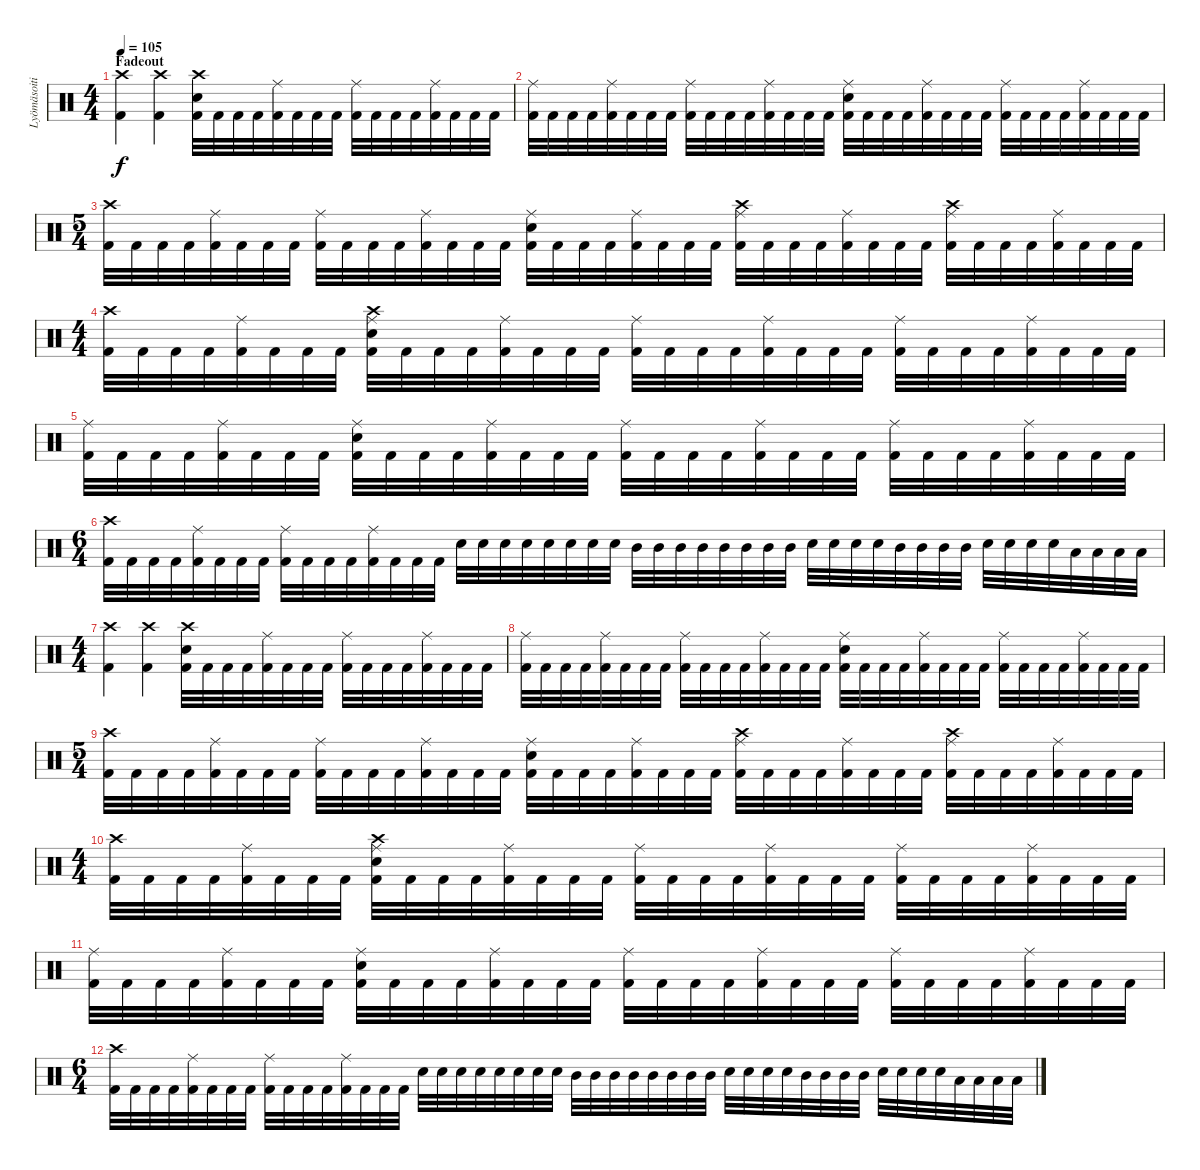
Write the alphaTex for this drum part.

\track ("Lyömäsoitin" "Lyömäsoiti") {instrument percussion}
\staff {score}
\articulation defaults
\ts (4 4)
\section ("" "Fadeout")
\tempo 105
\clef neutral
\ks c
("Kick (hit) 2" "Crash high (hit)").4{dy f} ("Kick (hit) 2" "Crash high (hit)").4 ("Kick (hit) 2" "Electric Snare (hit)" "Crash high (hit)").32 "Kick (hit) 2".32 "Kick (hit) 2".32 "Kick (hit) 2".32 ("Kick (hit) 2" "Ride (middle)").32 "Kick (hit) 2".32 "Kick (hit) 2".32 "Kick (hit) 2".32 ("Kick (hit) 2" "Ride (middle)").32 "Kick (hit) 2".32 "Kick (hit) 2".32 "Kick (hit) 2".32 ("Kick (hit) 2" "Ride (middle)").32 "Kick (hit) 2".32 "Kick (hit) 2".32 "Kick (hit) 2".32 |
("Kick (hit) 2" "Ride (middle)").32 "Kick (hit) 2".32 "Kick (hit) 2".32 "Kick (hit) 2".32 ("Kick (hit) 2" "Ride (middle)").32 "Kick (hit) 2".32 "Kick (hit) 2".32 "Kick (hit) 2".32 ("Kick (hit) 2" "Ride (middle)").32 "Kick (hit) 2".32 "Kick (hit) 2".32 "Kick (hit) 2".32 ("Kick (hit) 2" "Ride (middle)").32 "Kick (hit) 2".32 "Kick (hit) 2".32 "Kick (hit) 2".32 ("Kick (hit) 2" "Ride (middle)" "Electric Snare (hit)").32 "Kick (hit) 2".32 "Kick (hit) 2".32 "Kick (hit) 2".32 ("Kick (hit) 2" "Ride (middle)").32 "Kick (hit) 2".32 "Kick (hit) 2".32 "Kick (hit) 2".32 ("Kick (hit) 2" "Ride (middle)").32 "Kick (hit) 2".32 "Kick (hit) 2".32 "Kick (hit) 2".32 ("Kick (hit) 2" "Ride (middle)").32 "Kick (hit) 2".32 "Kick (hit) 2".32 "Kick (hit) 2".32 |
\ts (5 4)
("Kick (hit) 2" "Crash high (hit)").32 "Kick (hit) 2".32 "Kick (hit) 2".32 "Kick (hit) 2".32 ("Kick (hit) 2" "Ride (middle)").32 "Kick (hit) 2".32 "Kick (hit) 2".32 "Kick (hit) 2".32 ("Kick (hit) 2" "Ride (middle)").32 "Kick (hit) 2".32 "Kick (hit) 2".32 "Kick (hit) 2".32 ("Kick (hit) 2" "Ride (middle)").32 "Kick (hit) 2".32 "Kick (hit) 2".32 "Kick (hit) 2".32 ("Kick (hit) 2" "Ride (middle)" "Electric Snare (hit)").32 "Kick (hit) 2".32 "Kick (hit) 2".32 "Kick (hit) 2".32 ("Kick (hit) 2" "Ride (middle)").32 "Kick (hit) 2".32 "Kick (hit) 2".32 "Kick (hit) 2".32 ("Kick (hit) 2" "Ride (middle)" "Crash high (hit)").32 "Kick (hit) 2".32 "Kick (hit) 2".32 "Kick (hit) 2".32 ("Kick (hit) 2" "Ride (middle)").32 "Kick (hit) 2".32 "Kick (hit) 2".32 "Kick (hit) 2".32 ("Kick (hit) 2" "Ride (middle)" "Crash high (hit)").32 "Kick (hit) 2".32 "Kick (hit) 2".32 "Kick (hit) 2".32 ("Kick (hit) 2" "Ride (middle)").32 "Kick (hit) 2".32 "Kick (hit) 2".32 "Kick (hit) 2".32 |
\ts (4 4)
("Kick (hit) 2" "Crash high (hit)").32 "Kick (hit) 2".32 "Kick (hit) 2".32 "Kick (hit) 2".32 ("Kick (hit) 2" "Ride (middle)").32 "Kick (hit) 2".32 "Kick (hit) 2".32 "Kick (hit) 2".32 ("Kick (hit) 2" "Ride (middle)" "Electric Snare (hit)" "Crash high (hit)").32 "Kick (hit) 2".32 "Kick (hit) 2".32 "Kick (hit) 2".32 ("Kick (hit) 2" "Ride (middle)").32 "Kick (hit) 2".32 "Kick (hit) 2".32 "Kick (hit) 2".32 ("Kick (hit) 2" "Ride (middle)").32 "Kick (hit) 2".32 "Kick (hit) 2".32 "Kick (hit) 2".32 ("Kick (hit) 2" "Ride (middle)").32 "Kick (hit) 2".32 "Kick (hit) 2".32 "Kick (hit) 2".32 ("Kick (hit) 2" "Ride (middle)").32 "Kick (hit) 2".32 "Kick (hit) 2".32 "Kick (hit) 2".32 ("Kick (hit) 2" "Ride (middle)").32 "Kick (hit) 2".32 "Kick (hit) 2".32 "Kick (hit) 2".32 |
("Kick (hit) 2" "Ride (middle)").32 "Kick (hit) 2".32 "Kick (hit) 2".32 "Kick (hit) 2".32 ("Kick (hit) 2" "Ride (middle)").32 "Kick (hit) 2".32 "Kick (hit) 2".32 "Kick (hit) 2".32 ("Kick (hit) 2" "Ride (middle)" "Electric Snare (hit)").32 "Kick (hit) 2".32 "Kick (hit) 2".32 "Kick (hit) 2".32 ("Kick (hit) 2" "Ride (middle)").32 "Kick (hit) 2".32 "Kick (hit) 2".32 "Kick (hit) 2".32 ("Kick (hit) 2" "Ride (middle)").32 "Kick (hit) 2".32 "Kick (hit) 2".32 "Kick (hit) 2".32 ("Kick (hit) 2" "Ride (middle)").32 "Kick (hit) 2".32 "Kick (hit) 2".32 "Kick (hit) 2".32 ("Kick (hit) 2" "Ride (middle)").32 "Kick (hit) 2".32 "Kick (hit) 2".32 "Kick (hit) 2".32 ("Kick (hit) 2" "Ride (middle)").32 "Kick (hit) 2".32 "Kick (hit) 2".32 "Kick (hit) 2".32 |
\ts (6 4)
("Kick (hit) 2" "Crash high (hit)").32 "Kick (hit) 2".32 "Kick (hit) 2".32 "Kick (hit) 2".32 ("Kick (hit) 2" "Ride (middle)").32 "Kick (hit) 2".32 "Kick (hit) 2".32 "Kick (hit) 2".32 ("Kick (hit) 2" "Ride (middle)").32 "Kick (hit) 2".32 "Kick (hit) 2".32 "Kick (hit) 2".32 ("Kick (hit) 2" "Ride (middle)").32 "Kick (hit) 2".32 "Kick (hit) 2".32 "Kick (hit) 2".32 "Electric Snare (hit)".32 "Electric Snare (hit)".32 "Electric Snare (hit)".32 "Electric Snare (hit)".32 "Electric Snare (hit)".32 "Electric Snare (hit)".32 "Electric Snare (hit)".32 "Electric Snare (hit)".32 "Mid Tom (hit)".32 "Mid Tom (hit)".32 "Mid Tom (hit)".32 "Mid Tom (hit)".32 "Mid Tom (hit)".32 "Mid Tom (hit)".32 "Mid Tom (hit)".32 "Mid Tom (hit)".32 "Electric Snare (hit)".32 "Electric Snare (hit)".32 "Electric Snare (hit)".32 "Electric Snare (hit)".32 "Mid Tom (hit)".32 "Mid Tom (hit)".32 "Mid Tom (hit)".32 "Mid Tom (hit)".32 "Electric Snare (hit)".32 "Electric Snare (hit)".32 "Electric Snare (hit)".32 "Electric Snare (hit)".32 "Low Floor Tom (hit)".32 "Low Floor Tom (hit)".32 "Low Floor Tom (hit)".32 "Low Floor Tom (hit)".32 |
\ts (4 4)
("Kick (hit) 2" "Crash high (hit)").4 ("Kick (hit) 2" "Crash high (hit)").4 ("Kick (hit) 2" "Electric Snare (hit)" "Crash high (hit)").32 "Kick (hit) 2".32 "Kick (hit) 2".32 "Kick (hit) 2".32 ("Kick (hit) 2" "Ride (middle)").32 "Kick (hit) 2".32 "Kick (hit) 2".32 "Kick (hit) 2".32 ("Kick (hit) 2" "Ride (middle)").32 "Kick (hit) 2".32 "Kick (hit) 2".32 "Kick (hit) 2".32 ("Kick (hit) 2" "Ride (middle)").32 "Kick (hit) 2".32 "Kick (hit) 2".32 "Kick (hit) 2".32 |
("Kick (hit) 2" "Ride (middle)").32 "Kick (hit) 2".32 "Kick (hit) 2".32 "Kick (hit) 2".32 ("Kick (hit) 2" "Ride (middle)").32 "Kick (hit) 2".32 "Kick (hit) 2".32 "Kick (hit) 2".32 ("Kick (hit) 2" "Ride (middle)").32 "Kick (hit) 2".32 "Kick (hit) 2".32 "Kick (hit) 2".32 ("Kick (hit) 2" "Ride (middle)").32 "Kick (hit) 2".32 "Kick (hit) 2".32 "Kick (hit) 2".32 ("Kick (hit) 2" "Ride (middle)" "Electric Snare (hit)").32 "Kick (hit) 2".32 "Kick (hit) 2".32 "Kick (hit) 2".32 ("Kick (hit) 2" "Ride (middle)").32 "Kick (hit) 2".32 "Kick (hit) 2".32 "Kick (hit) 2".32 ("Kick (hit) 2" "Ride (middle)").32 "Kick (hit) 2".32 "Kick (hit) 2".32 "Kick (hit) 2".32 ("Kick (hit) 2" "Ride (middle)").32 "Kick (hit) 2".32 "Kick (hit) 2".32 "Kick (hit) 2".32 |
\ts (5 4)
("Kick (hit) 2" "Crash high (hit)").32 "Kick (hit) 2".32 "Kick (hit) 2".32 "Kick (hit) 2".32 ("Kick (hit) 2" "Ride (middle)").32 "Kick (hit) 2".32 "Kick (hit) 2".32 "Kick (hit) 2".32 ("Kick (hit) 2" "Ride (middle)").32 "Kick (hit) 2".32 "Kick (hit) 2".32 "Kick (hit) 2".32 ("Kick (hit) 2" "Ride (middle)").32 "Kick (hit) 2".32 "Kick (hit) 2".32 "Kick (hit) 2".32 ("Kick (hit) 2" "Ride (middle)" "Electric Snare (hit)").32 "Kick (hit) 2".32 "Kick (hit) 2".32 "Kick (hit) 2".32 ("Kick (hit) 2" "Ride (middle)").32 "Kick (hit) 2".32 "Kick (hit) 2".32 "Kick (hit) 2".32 ("Kick (hit) 2" "Ride (middle)" "Crash high (hit)").32 "Kick (hit) 2".32 "Kick (hit) 2".32 "Kick (hit) 2".32 ("Kick (hit) 2" "Ride (middle)").32 "Kick (hit) 2".32 "Kick (hit) 2".32 "Kick (hit) 2".32 ("Kick (hit) 2" "Ride (middle)" "Crash high (hit)").32 "Kick (hit) 2".32 "Kick (hit) 2".32 "Kick (hit) 2".32 ("Kick (hit) 2" "Ride (middle)").32 "Kick (hit) 2".32 "Kick (hit) 2".32 "Kick (hit) 2".32 |
\ts (4 4)
("Kick (hit) 2" "Crash high (hit)").32 "Kick (hit) 2".32 "Kick (hit) 2".32 "Kick (hit) 2".32 ("Kick (hit) 2" "Ride (middle)").32 "Kick (hit) 2".32 "Kick (hit) 2".32 "Kick (hit) 2".32 ("Kick (hit) 2" "Ride (middle)" "Electric Snare (hit)" "Crash high (hit)").32 "Kick (hit) 2".32 "Kick (hit) 2".32 "Kick (hit) 2".32 ("Kick (hit) 2" "Ride (middle)").32 "Kick (hit) 2".32 "Kick (hit) 2".32 "Kick (hit) 2".32 ("Kick (hit) 2" "Ride (middle)").32 "Kick (hit) 2".32 "Kick (hit) 2".32 "Kick (hit) 2".32 ("Kick (hit) 2" "Ride (middle)").32 "Kick (hit) 2".32 "Kick (hit) 2".32 "Kick (hit) 2".32 ("Kick (hit) 2" "Ride (middle)").32 "Kick (hit) 2".32 "Kick (hit) 2".32 "Kick (hit) 2".32 ("Kick (hit) 2" "Ride (middle)").32 "Kick (hit) 2".32 "Kick (hit) 2".32 "Kick (hit) 2".32 |
("Kick (hit) 2" "Ride (middle)").32 "Kick (hit) 2".32 "Kick (hit) 2".32 "Kick (hit) 2".32 ("Kick (hit) 2" "Ride (middle)").32 "Kick (hit) 2".32 "Kick (hit) 2".32 "Kick (hit) 2".32 ("Kick (hit) 2" "Ride (middle)" "Electric Snare (hit)").32 "Kick (hit) 2".32 "Kick (hit) 2".32 "Kick (hit) 2".32 ("Kick (hit) 2" "Ride (middle)").32 "Kick (hit) 2".32 "Kick (hit) 2".32 "Kick (hit) 2".32 ("Kick (hit) 2" "Ride (middle)").32 "Kick (hit) 2".32 "Kick (hit) 2".32 "Kick (hit) 2".32 ("Kick (hit) 2" "Ride (middle)").32 "Kick (hit) 2".32 "Kick (hit) 2".32 "Kick (hit) 2".32 ("Kick (hit) 2" "Ride (middle)").32 "Kick (hit) 2".32 "Kick (hit) 2".32 "Kick (hit) 2".32 ("Kick (hit) 2" "Ride (middle)").32 "Kick (hit) 2".32 "Kick (hit) 2".32 "Kick (hit) 2".32 |
\ts (6 4)
("Kick (hit) 2" "Crash high (hit)").32 "Kick (hit) 2".32 "Kick (hit) 2".32 "Kick (hit) 2".32 ("Kick (hit) 2" "Ride (middle)").32 "Kick (hit) 2".32 "Kick (hit) 2".32 "Kick (hit) 2".32 ("Kick (hit) 2" "Ride (middle)").32 "Kick (hit) 2".32 "Kick (hit) 2".32 "Kick (hit) 2".32 ("Kick (hit) 2" "Ride (middle)").32 "Kick (hit) 2".32 "Kick (hit) 2".32 "Kick (hit) 2".32 "Electric Snare (hit)".32 "Electric Snare (hit)".32 "Electric Snare (hit)".32 "Electric Snare (hit)".32 "Electric Snare (hit)".32 "Electric Snare (hit)".32 "Electric Snare (hit)".32 "Electric Snare (hit)".32 "Mid Tom (hit)".32 "Mid Tom (hit)".32 "Mid Tom (hit)".32 "Mid Tom (hit)".32 "Mid Tom (hit)".32 "Mid Tom (hit)".32 "Mid Tom (hit)".32 "Mid Tom (hit)".32 "Electric Snare (hit)".32 "Electric Snare (hit)".32 "Electric Snare (hit)".32 "Electric Snare (hit)".32 "Mid Tom (hit)".32 "Mid Tom (hit)".32 "Mid Tom (hit)".32 "Mid Tom (hit)".32 "Electric Snare (hit)".32 "Electric Snare (hit)".32 "Electric Snare (hit)".32 "Electric Snare (hit)".32 "Low Floor Tom (hit)".32 "Low Floor Tom (hit)".32 "Low Floor Tom (hit)".32 "Low Floor Tom (hit)".32
